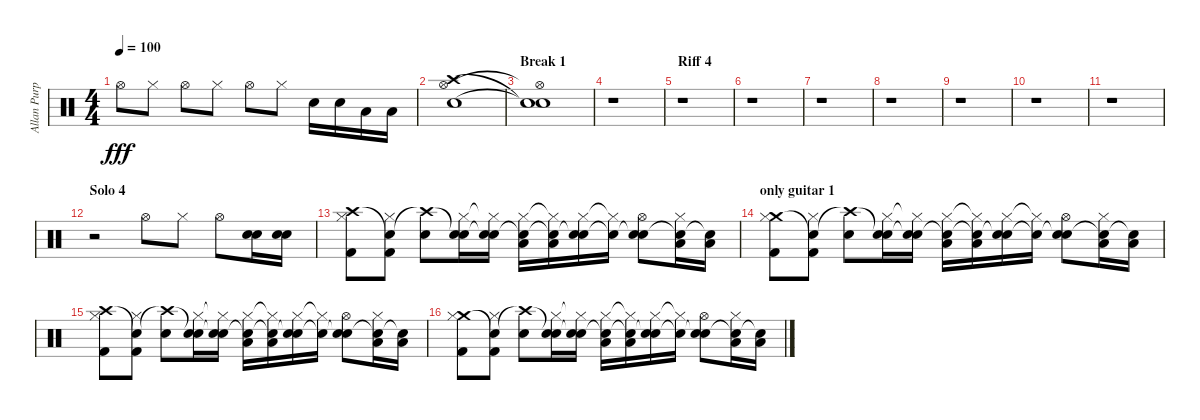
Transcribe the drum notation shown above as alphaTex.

\track ("Allan Purple" "Allan Purp") {instrument percussion}
\staff {score}
\articulation defaults
\ts (4 4)
\tempo 100
\clef neutral
\ks c "Hi-Hat (open)".8{dy fff} "Hi-Hat (closed)".8 "Hi-Hat (open)".8 "Hi-Hat (closed)".8 "Hi-Hat (open)".8 "Hi-Hat (closed)".8 "Electric Snare (hit)".16 "Electric Snare (hit)".16 "Low Tom (hit)".16 "Low Tom (hit)".16
|
("Crash high (hit)" "Hi-Hat (open)" "Electric Snare (hit)").1 |
\section ("" "Break 1")
("Snare (hit)"{t} "Hi-Hat (open)"{t} "Snare (hit)"{t}).1 |
r.1 |
\section ("" "Riff 4")
r.1 |
r.1 |
r.1 |
r.1 |
r.1 |
r.1 |
r.1 |
\section ("" "Solo 4")
r.2 "Hi-Hat (open)".8 "Hi-Hat (closed)".8 "Hi-Hat (open)".8 ("Electric Snare (hit)" "Electric Snare (hit)").16 ("Electric Snare (hit)" "Electric Snare (hit)").16 |
("Crash high (hit)" "Hi-Hat (closed)" "Kick (hit) 2").8 ("Snare (hit)"{t} "Hi-Hat (closed)" "Kick (hit) 2").8 ("Crash high (hit)"{t} "Snare (hit) 2").8 ("Snare (hit)"{t} "Hi-Hat (closed)" "Electric Snare (hit)").16 ("Snare (hit)"{t} "Hi-Hat (closed)"{t} "Electric Snare (hit)").16 ("Snare (hit)"{t} "Hi-Hat (closed)" "Low Tom (hit)").16 ("Snare (hit)"{t} "Hi-Hat (closed)"{t} "Low Tom (hit)").16 ("Snare (hit)"{t} "Hi-Hat (closed)" "Electric Snare (hit)").16 ("Snare (hit)"{t} "Hi-Hat (closed)"{t}).16 ("Snare (hit)"{t} "Hi-Hat (open)" "Electric Snare (hit)").8 ("Snare (hit)"{t} "Hi-Hat (closed)" "Low Tom (hit)").16 ("Snare (hit)"{t} "Low Tom (hit)").16 |
\section ("" "only guitar 1")
("Crash medium (hit)" "Hi-Hat (closed)" "Kick (hit) 2").8 ("Snare (hit)"{t} "Hi-Hat (closed)" "Kick (hit) 2").8 ("Crash high (hit)"{t} "Snare (hit) 2").8 ("Snare (hit)"{t} "Hi-Hat (closed)" "Electric Snare (hit)").16 ("Snare (hit)"{t} "Hi-Hat (closed)"{t} "Electric Snare (hit)").16 ("Snare (hit)"{t} "Hi-Hat (closed)" "Low Tom (hit)").16 ("Snare (hit)"{t} "Hi-Hat (closed)"{t} "Low Tom (hit)").16 ("Snare (hit)"{t} "Hi-Hat (closed)" "Electric Snare (hit)").16 ("Snare (hit)"{t} "Hi-Hat (closed)"{t}).16 ("Snare (hit)"{t} "Hi-Hat (open)" "Electric Snare (hit)").8 ("Snare (hit)"{t} "Hi-Hat (closed)" "Low Tom (hit)").16 ("Snare (hit)"{t} "Low Tom (hit)").16 |
("Crash high (hit)" "Hi-Hat (closed)" "Kick (hit) 2").8 ("Snare (hit)"{t} "Hi-Hat (closed)" "Kick (hit) 2").8 ("Crash high (hit)"{t} "Snare (hit) 2").8 ("Snare (hit)"{t} "Hi-Hat (closed)" "Electric Snare (hit)").16 ("Snare (hit)"{t} "Hi-Hat (closed)"{t} "Electric Snare (hit)").16 ("Snare (hit)"{t} "Hi-Hat (closed)" "Low Tom (hit)").16 ("Snare (hit)"{t} "Hi-Hat (closed)"{t} "Low Tom (hit)").16 ("Snare (hit)"{t} "Hi-Hat (closed)" "Electric Snare (hit)").16 ("Snare (hit)"{t} "Hi-Hat (closed)"{t}).16 ("Snare (hit)"{t} "Hi-Hat (open)" "Electric Snare (hit)").8 ("Snare (hit)"{t} "Hi-Hat (closed)" "Low Tom (hit)").16 ("Snare (hit)"{t} "Low Tom (hit)").16 |
("Crash medium (hit)" "Hi-Hat (closed)" "Kick (hit) 2").8 ("Snare (hit)"{t} "Hi-Hat (closed)" "Kick (hit) 2").8 ("Crash high (hit)"{t} "Snare (hit) 2").8 ("Snare (hit)"{t} "Hi-Hat (closed)" "Electric Snare (hit)").16 ("Snare (hit)"{t} "Hi-Hat (closed)"{t} "Electric Snare (hit)").16 ("Snare (hit)"{t} "Hi-Hat (closed)" "Low Tom (hit)").16 ("Snare (hit)"{t} "Hi-Hat (closed)"{t} "Low Tom (hit)").16 ("Snare (hit)"{t} "Hi-Hat (closed)" "Electric Snare (hit)").16 ("Snare (hit)"{t} "Hi-Hat (closed)"{t}).16 ("Snare (hit)"{t} "Hi-Hat (open)" "Electric Snare (hit)").8 ("Snare (hit)"{t} "Hi-Hat (closed)" "Low Tom (hit)").16 ("Snare (hit)"{t} "Low Tom (hit)").16
